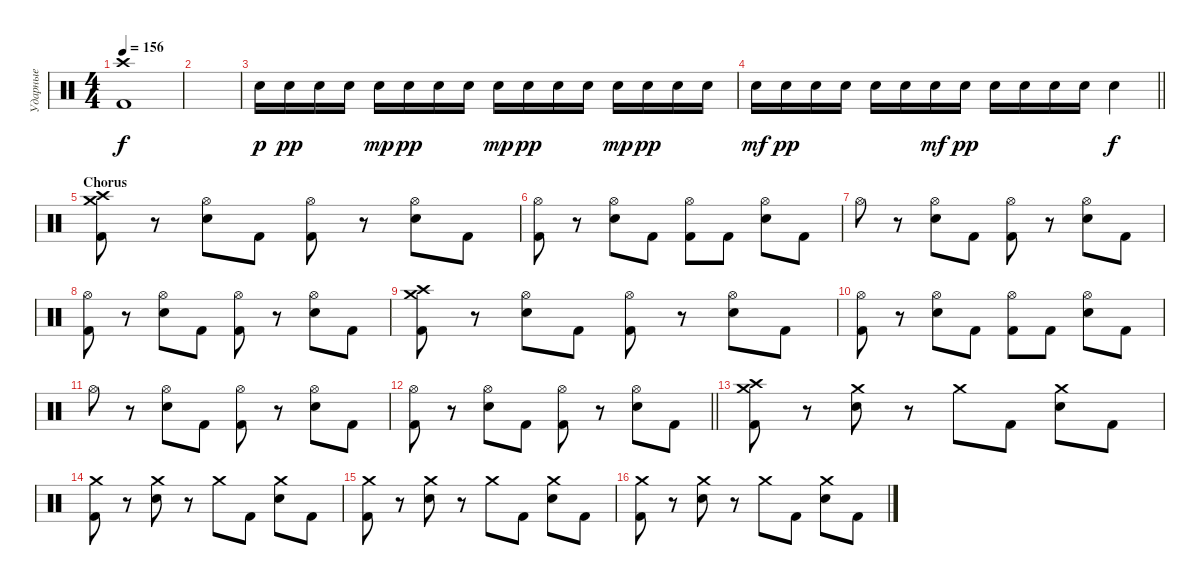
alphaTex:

\track ("Ударные" "Ударные") {instrument percussion}
\staff {score}
\articulation defaults
\ts (4 4)
\tempo 156
\clef neutral
\ks c
("Crash high (hit)" "Kick (hit) 2").1{dy f} |
|
"Electric Snare (hit)".16{dy p} "Electric Snare (hit)".16{dy pp} "Electric Snare (hit)".16 "Electric Snare (hit)".16 "Electric Snare (hit)".16{dy mp} "Electric Snare (hit)".16{dy pp} "Electric Snare (hit)".16 "Electric Snare (hit)".16 "Electric Snare (hit)".16{dy mp} "Electric Snare (hit)".16{dy pp} "Electric Snare (hit)".16 "Electric Snare (hit)".16 "Electric Snare (hit)".16{dy mp} "Electric Snare (hit)".16{dy pp} "Electric Snare (hit)".16 "Electric Snare (hit)".16 |
\barLineRight lightlight "Electric Snare (hit)".16{dy mf} "Electric Snare (hit)".16{dy pp} "Electric Snare (hit)".16 "Electric Snare (hit)".16 "Electric Snare (hit)".16 "Electric Snare (hit)".16 "Electric Snare (hit)".16{dy mf} "Electric Snare (hit)".16{dy pp} "Electric Snare (hit)".16 "Electric Snare (hit)".16 "Electric Snare (hit)".16 "Electric Snare (hit)".16 "Electric Snare (hit)".4{dy f}
|
\section ("" "Chorus")
("Crash medium (hit)" "Crash high (hit)" "Kick (hit) 2").8 r.8 ("Hi-Hat (open)" "Electric Snare (hit)").8 "Kick (hit) 2".8 ("Hi-Hat (open)" "Kick (hit) 2").8 r.8 ("Hi-Hat (open)" "Electric Snare (hit)").8 "Kick (hit) 2".8 |
("Hi-Hat (open)" "Kick (hit) 2").8 r.8 ("Hi-Hat (open)" "Electric Snare (hit)").8 "Kick (hit) 2".8 ("Hi-Hat (open)" "Kick (hit) 2").8 "Kick (hit) 2".8 ("Hi-Hat (open)" "Electric Snare (hit)").8 "Kick (hit) 2".8 |
"Hi-Hat (open)".8 r.8 ("Hi-Hat (open)" "Electric Snare (hit)").8 "Kick (hit) 2".8 ("Hi-Hat (open)" "Kick (hit) 2").8 r.8 ("Hi-Hat (open)" "Electric Snare (hit)").8 "Kick (hit) 2".8 |
("Hi-Hat (open)" "Kick (hit) 2").8 r.8 ("Hi-Hat (open)" "Electric Snare (hit)").8 "Kick (hit) 2".8 ("Hi-Hat (open)" "Kick (hit) 2").8 r.8 ("Hi-Hat (open)" "Electric Snare (hit)").8 "Kick (hit) 2".8 |
("Crash medium (hit)" "Crash high (hit)" "Kick (hit) 2").8 r.8 ("Hi-Hat (open)" "Electric Snare (hit)").8 "Kick (hit) 2".8 ("Hi-Hat (open)" "Kick (hit) 2").8 r.8 ("Hi-Hat (open)" "Electric Snare (hit)").8 "Kick (hit) 2".8 |
("Hi-Hat (open)" "Kick (hit) 2").8 r.8 ("Hi-Hat (open)" "Electric Snare (hit)").8 "Kick (hit) 2".8 ("Hi-Hat (open)" "Kick (hit) 2").8 "Kick (hit) 2".8 ("Hi-Hat (open)" "Electric Snare (hit)").8 "Kick (hit) 2".8 |
"Hi-Hat (open)".8 r.8 ("Hi-Hat (open)" "Electric Snare (hit)").8 "Kick (hit) 2".8 ("Hi-Hat (open)" "Kick (hit) 2").8 r.8 ("Hi-Hat (open)" "Electric Snare (hit)").8 "Kick (hit) 2".8 |
\barLineRight lightlight
("Hi-Hat (open)" "Kick (hit) 2").8 r.8 ("Hi-Hat (open)" "Electric Snare (hit)").8 "Kick (hit) 2".8 ("Hi-Hat (open)" "Kick (hit) 2").8 r.8 ("Hi-Hat (open)" "Electric Snare (hit)").8 "Kick (hit) 2".8 |
("Crash high (hit)" "Crash medium (hit)" "Kick (hit) 2").8 r.8 ("Crash medium (hit)" "Electric Snare (hit)").8 r.8 "Crash medium (hit)".8 "Kick (hit) 2".8 ("Crash medium (hit)" "Electric Snare (hit)").8 "Kick (hit) 2".8 |
("Crash medium (hit)" "Kick (hit) 2").8 r.8 ("Crash medium (hit)" "Electric Snare (hit)").8 r.8 "Crash medium (hit)".8 "Kick (hit) 2".8 ("Crash medium (hit)" "Electric Snare (hit)").8 "Kick (hit) 2".8 |
("Crash medium (hit)" "Kick (hit) 2").8 r.8 ("Crash medium (hit)" "Electric Snare (hit)").8 r.8 "Crash medium (hit)".8 "Kick (hit) 2".8 ("Crash medium (hit)" "Electric Snare (hit)").8 "Kick (hit) 2".8 |
("Crash medium (hit)" "Kick (hit) 2").8 r.8 ("Crash medium (hit)" "Electric Snare (hit)").8 r.8 "Crash medium (hit)".8 "Kick (hit) 2".8 ("Crash medium (hit)" "Electric Snare (hit)").8 "Kick (hit) 2".8
